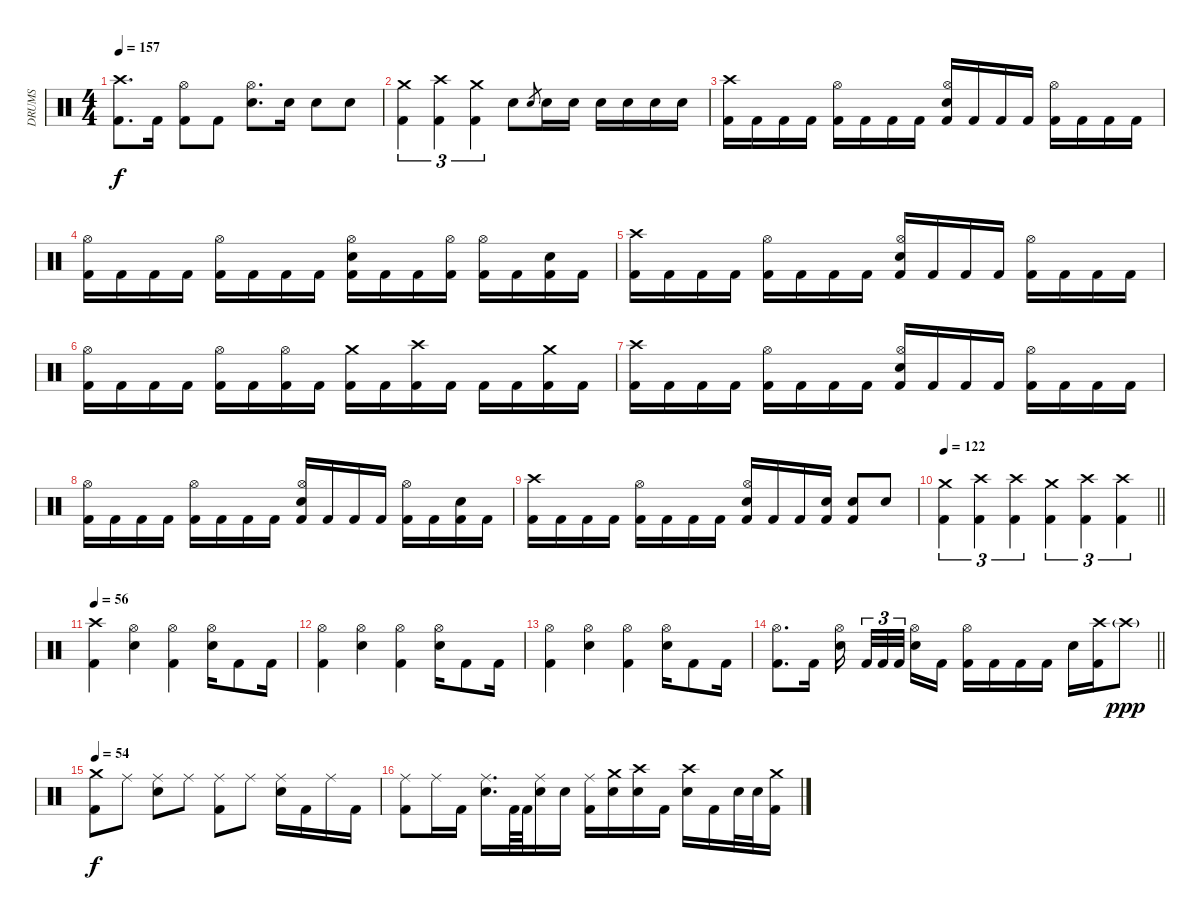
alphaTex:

\track ("DRUMS" "DRUMS") {instrument percussion}
\staff {score}
\articulation defaults
\ts (4 4)
\tempo 157
\clef neutral
\ks c
("Crash high (hit)" "Kick (hit) 2").8{d dy f} "Kick (hit) 2".16 ("Hi-Hat (open)" "Kick (hit) 2").8 "Kick (hit) 2".8 ("Hi-Hat (open)" "Snare (hit) 2").8{d} "Snare (hit) 2".16 "Snare (hit) 2".8 "Snare (hit) 2".8 |
("Crash medium (hit)" "Kick (hit) 2").4{tu (3 2)} ("Crash high (hit)" "Kick (hit) 2").4{tu (3 2)} ("Crash medium (hit)" "Kick (hit) 2").4{tu (3 2)} "Snare (hit) 2".8 "Snare (hit) 2".8{gr} "Snare (hit) 2".16 "Snare (hit) 2".16 "Snare (hit) 2".16 "Snare (hit) 2".16 "Snare (hit) 2".16 "Snare (hit) 2".16 |
("Crash high (hit)" "Kick (hit) 2").16 "Kick (hit) 2".16 "Kick (hit) 2".16 "Kick (hit) 2".16 ("Hi-Hat (open)" "Kick (hit) 2").16 "Kick (hit) 2".16 "Kick (hit) 2".16 "Kick (hit) 2".16 ("Hi-Hat (open)" "Snare (hit) 2" "Kick (hit) 2").16 "Kick (hit) 2".16 "Kick (hit) 2".16 "Kick (hit) 2".16 ("Hi-Hat (open)" "Kick (hit) 2").16 "Kick (hit) 2".16 "Kick (hit) 2".16 "Kick (hit) 2".16 |
("Hi-Hat (open)" "Kick (hit) 2").16 "Kick (hit) 2".16 "Kick (hit) 2".16 "Kick (hit) 2".16 ("Hi-Hat (open)" "Kick (hit) 2").16 "Kick (hit) 2".16 "Kick (hit) 2".16 "Kick (hit) 2".16 ("Hi-Hat (open)" "Snare (hit) 2" "Kick (hit) 2").16 "Kick (hit) 2".16 "Kick (hit) 2".16 ("Hi-Hat (open)" "Kick (hit) 2").16 ("Hi-Hat (open)" "Kick (hit) 2").16 "Kick (hit) 2".16 ("Snare (hit) 2" "Kick (hit) 2").16 "Kick (hit) 2".16 |
("Crash high (hit)" "Kick (hit) 2").16 "Kick (hit) 2".16 "Kick (hit) 2".16 "Kick (hit) 2".16 ("Hi-Hat (open)" "Kick (hit) 2").16 "Kick (hit) 2".16 "Kick (hit) 2".16 "Kick (hit) 2".16 ("Hi-Hat (open)" "Snare (hit) 2" "Kick (hit) 2").16 "Kick (hit) 2".16 "Kick (hit) 2".16 "Kick (hit) 2".16 ("Hi-Hat (open)" "Kick (hit) 2").16 "Kick (hit) 2".16 "Kick (hit) 2".16 "Kick (hit) 2".16 |
("Hi-Hat (open)" "Kick (hit) 2").16 "Kick (hit) 2".16 "Kick (hit) 2".16 "Kick (hit) 2".16 ("Hi-Hat (open)" "Kick (hit) 2").16 "Kick (hit) 2".16 ("Hi-Hat (open)" "Kick (hit) 2").16 "Kick (hit) 2".16 ("Crash medium (hit)" "Kick (hit) 2").16 "Kick (hit) 2".16 ("Crash high (hit)" "Kick (hit) 2").16 "Kick (hit) 2".16 "Kick (hit) 2".16 "Kick (hit) 2".16 ("Crash medium (hit)" "Kick (hit) 2").16 "Kick (hit) 2".16 |
("Crash high (hit)" "Kick (hit) 2").16 "Kick (hit) 2".16 "Kick (hit) 2".16 "Kick (hit) 2".16 ("Hi-Hat (open)" "Kick (hit) 2").16 "Kick (hit) 2".16 "Kick (hit) 2".16 "Kick (hit) 2".16 ("Hi-Hat (open)" "Snare (hit) 2" "Kick (hit) 2").16 "Kick (hit) 2".16 "Kick (hit) 2".16 "Kick (hit) 2".16 ("Hi-Hat (open)" "Kick (hit) 2").16 "Kick (hit) 2".16 "Kick (hit) 2".16 "Kick (hit) 2".16 |
("Hi-Hat (open)" "Kick (hit) 2").16 "Kick (hit) 2".16 "Kick (hit) 2".16 "Kick (hit) 2".16 ("Hi-Hat (open)" "Kick (hit) 2").16 "Kick (hit) 2".16 "Kick (hit) 2".16 "Kick (hit) 2".16 ("Hi-Hat (open)" "Snare (hit) 2" "Kick (hit) 2").16 "Kick (hit) 2".16 "Kick (hit) 2".16 "Kick (hit) 2".16 ("Hi-Hat (open)" "Kick (hit) 2").16 "Kick (hit) 2".16 ("Snare (hit) 2" "Kick (hit) 2").16 "Kick (hit) 2".16 |
("Crash high (hit)" "Kick (hit) 2").16 "Kick (hit) 2".16 "Kick (hit) 2".16 "Kick (hit) 2".16 ("Hi-Hat (open)" "Kick (hit) 2").16 "Kick (hit) 2".16 "Kick (hit) 2".16 "Kick (hit) 2".16 ("Hi-Hat (open)" "Snare (hit) 2" "Kick (hit) 2").16 "Kick (hit) 2".16 "Kick (hit) 2".16 ("Snare (hit) 2" "Kick (hit) 2").16 ("Snare (hit) 2" "Kick (hit) 2").8 "Snare (hit) 2".8 |
\tempo 122
\barLineRight lightlight
("Crash medium (hit)" "Kick (hit) 2").4{tu (3 2)} ("Crash high (hit)" "Kick (hit) 2").4{tu (3 2)} ("Crash high (hit)" "Kick (hit) 2").4{tu (3 2)} ("Crash medium (hit)" "Kick (hit) 2").4{tu (3 2)} ("Crash high (hit)" "Kick (hit) 2").4{tu (3 2)} ("Crash high (hit)" "Kick (hit) 2").4{tu (3 2)} |
\tempo 56
("Crash high (hit)" "Kick (hit) 2").4 ("Hi-Hat (open)" "Snare (hit) 2").4 ("Hi-Hat (open)" "Kick (hit) 2").4 ("Hi-Hat (open)" "Snare (hit) 2").16 "Kick (hit) 2".8 "Kick (hit) 2".16 |
("Hi-Hat (open)" "Kick (hit) 2").4 ("Hi-Hat (open)" "Snare (hit) 2").4 ("Hi-Hat (open)" "Kick (hit) 2").4 ("Hi-Hat (open)" "Snare (hit) 2").16 "Kick (hit) 2".8 "Kick (hit) 2".16 |
("Hi-Hat (open)" "Kick (hit) 2").4 ("Hi-Hat (open)" "Snare (hit) 2").4 ("Hi-Hat (open)" "Kick (hit) 2").4 ("Hi-Hat (open)" "Snare (hit) 2").16 "Kick (hit) 2".8 "Kick (hit) 2".16 |
\barLineRight lightlight
("Hi-Hat (open)" "Kick (hit) 2").8{d} "Kick (hit) 2".16 ("Hi-Hat (open)" "Snare (hit) 2").16{beam splitsecondary} "Kick (hit) 2".32{tu (3 2)} "Kick (hit) 2".32{tu (3 2)} "Kick (hit) 2".32{tu (3 2) beam splitsecondary} ("Hi-Hat (open)" "Snare (hit) 2").16 "Kick (hit) 2".16 ("Hi-Hat (open)" "Kick (hit) 2").16 "Kick (hit) 2".16 "Kick (hit) 2".16 "Kick (hit) 2".16 "Snare (hit) 2".16 ("Crash high (hit)" "Kick (hit) 2").16 "Crash high (hit)"{g}.8{dy ppp} |
\tempo 54
("Crash medium (hit)" "Kick (hit) 2").8{dy f} "Ride (middle)".8 ("Ride (middle)" "Snare (hit) 2").8 "Ride (middle)".8 ("Ride (middle)" "Kick (hit) 2").8 "Ride (middle)".8 ("Ride (middle)" "Snare (hit) 2").16 "Kick (hit) 2".16 "Ride (middle)".16 "Kick (hit) 2".16 |
("Ride (middle)" "Kick (hit) 2").8 "Ride (middle)".16 "Kick (hit) 2".16 ("Ride (middle)" "Snare (hit) 2").16{d} "Kick (hit) 2".64 "Kick (hit) 2".64 ("Ride (middle)" "Snare (hit) 2").16 "Snare (hit) 2".16 ("Ride (middle)" "Kick (hit) 2").16 ("Crash medium (hit)" "Snare (hit) 2").16 ("Crash high (hit)" "Snare (hit) 2").16 "Kick (hit) 2".16 ("Crash high (hit)" "Snare (hit) 2").16 "Kick (hit) 2".16 "Snare (hit) 2".32 "Snare (hit) 2".32 ("Crash medium (hit)" "Kick (hit) 2").16
